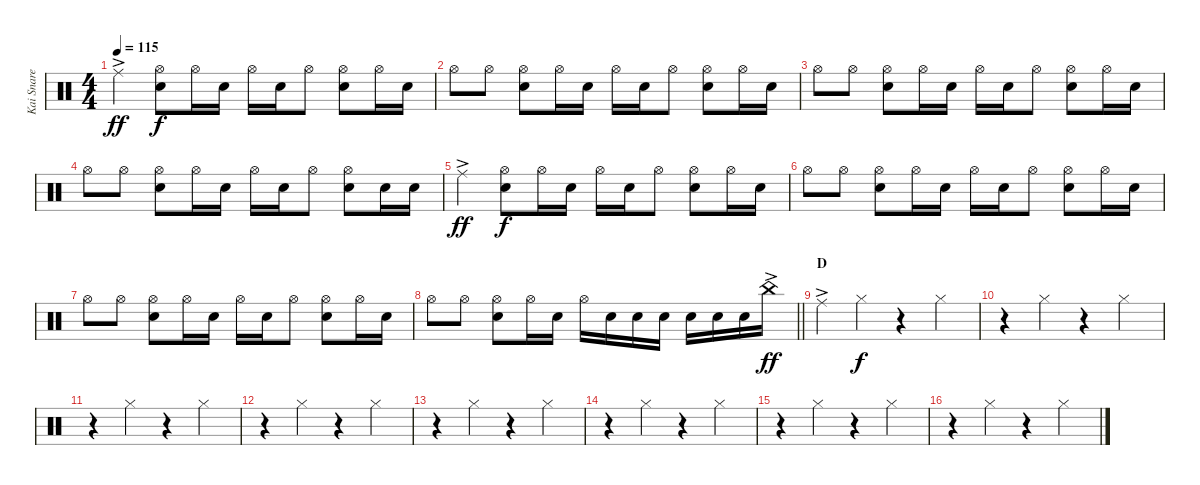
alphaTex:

\track ("Kai Snare" "Kai Snare") {instrument percussion}
\staff {score}
\articulation defaults
\ts (4 4)
\tempo 115
\clef neutral
\ks c "Ride (middle)"{ac}.4{dy ff}
("Hi-Hat (open)" "Snare (hit) 2").8{dy f} "Hi-Hat (open)".16 "Snare (hit) 2".16 "Hi-Hat (open)".16 "Snare (hit) 2".16 "Hi-Hat (open)".8 ("Hi-Hat (open)" "Snare (hit) 2").8 "Hi-Hat (open)".16 "Snare (hit) 2".16 |
"Hi-Hat (open)".8 "Hi-Hat (open)".8 ("Hi-Hat (open)" "Snare (hit) 2").8 "Hi-Hat (open)".16 "Snare (hit) 2".16 "Hi-Hat (open)".16 "Snare (hit) 2".16 "Hi-Hat (open)".8 ("Hi-Hat (open)" "Snare (hit) 2").8 "Hi-Hat (open)".16 "Snare (hit) 2".16 |
"Hi-Hat (open)".8 "Hi-Hat (open)".8 ("Hi-Hat (open)" "Snare (hit) 2").8 "Hi-Hat (open)".16 "Snare (hit) 2".16 "Hi-Hat (open)".16 "Snare (hit) 2".16 "Hi-Hat (open)".8 ("Hi-Hat (open)" "Snare (hit) 2").8 "Hi-Hat (open)".16 "Snare (hit) 2".16 |
"Hi-Hat (open)".8 "Hi-Hat (open)".8 ("Hi-Hat (open)" "Snare (hit) 2").8 "Hi-Hat (open)".16 "Snare (hit) 2".16 "Hi-Hat (open)".16 "Snare (hit) 2".16 "Hi-Hat (open)".8 ("Hi-Hat (open)" "Snare (hit) 2").8 "Snare (hit) 2".16 "Snare (hit) 2".16 |
"Ride (middle)"{ac}.4{dy ff} ("Hi-Hat (open)" "Snare (hit) 2").8{dy f} "Hi-Hat (open)".16 "Snare (hit) 2".16 "Hi-Hat (open)".16 "Snare (hit) 2".16 "Hi-Hat (open)".8 ("Hi-Hat (open)" "Snare (hit) 2").8 "Hi-Hat (open)".16 "Snare (hit) 2".16 |
"Hi-Hat (open)".8 "Hi-Hat (open)".8 ("Hi-Hat (open)" "Snare (hit) 2").8 "Hi-Hat (open)".16 "Snare (hit) 2".16 "Hi-Hat (open)".16 "Snare (hit) 2".16 "Hi-Hat (open)".8 ("Hi-Hat (open)" "Snare (hit) 2").8 "Hi-Hat (open)".16 "Snare (hit) 2".16 |
"Hi-Hat (open)".8 "Hi-Hat (open)".8 ("Hi-Hat (open)" "Snare (hit) 2").8 "Hi-Hat (open)".16 "Snare (hit) 2".16 "Hi-Hat (open)".16 "Snare (hit) 2".16 "Hi-Hat (open)".8 ("Hi-Hat (open)" "Snare (hit) 2").8 "Hi-Hat (open)".16 "Snare (hit) 2".16 |
\barLineRight lightlight "Hi-Hat (open)".8 "Hi-Hat (open)".8
("Hi-Hat (open)" "Snare (hit) 2").8 "Hi-Hat (open)".16 "Snare (hit) 2".16 "Hi-Hat (open)".16 "Snare (hit) 2".16 "Snare (hit) 2".16 "Snare (hit) 2".16 "Snare (hit) 2".16 "Snare (hit) 2".16 "Snare (hit) 2".16 "China (hit)"{ac}.16{dy ff} |
\section ("" "D")
"Ride (middle)"{ac}.4 "Hi-Hat (closed)".4{dy f} r.4 "Hi-Hat (closed)".4 |
r.4 "Hi-Hat (closed)".4 r.4 "Hi-Hat (closed)".4 |
r.4 "Hi-Hat (closed)".4 r.4 "Hi-Hat (closed)".4 |
r.4 "Hi-Hat (closed)".4 r.4 "Hi-Hat (closed)".4 |
r.4 "Hi-Hat (closed)".4 r.4 "Hi-Hat (closed)".4 |
r.4 "Hi-Hat (closed)".4 r.4 "Hi-Hat (closed)".4 |
r.4 "Hi-Hat (closed)".4 r.4 "Hi-Hat (closed)".4 |
r.4 "Hi-Hat (closed)".4 r.4 "Hi-Hat (closed)".4
